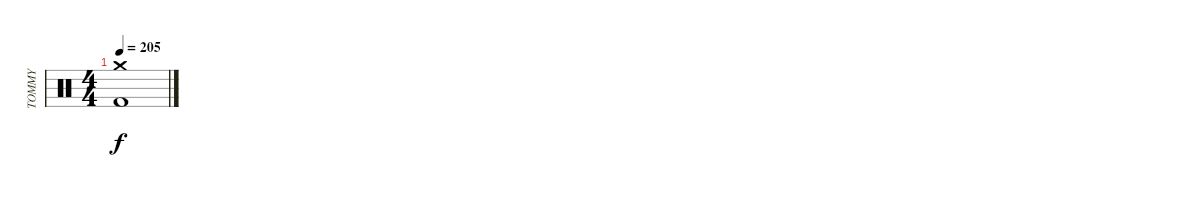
\track ("TOMMY" "TOMMY") {instrument percussion}
\staff {score}
\articulation defaults
\ts (4 4)
\tempo 205
\clef neutral
\ks c
("Kick (hit) 2" "Crash medium (hit)").1{dy f}
